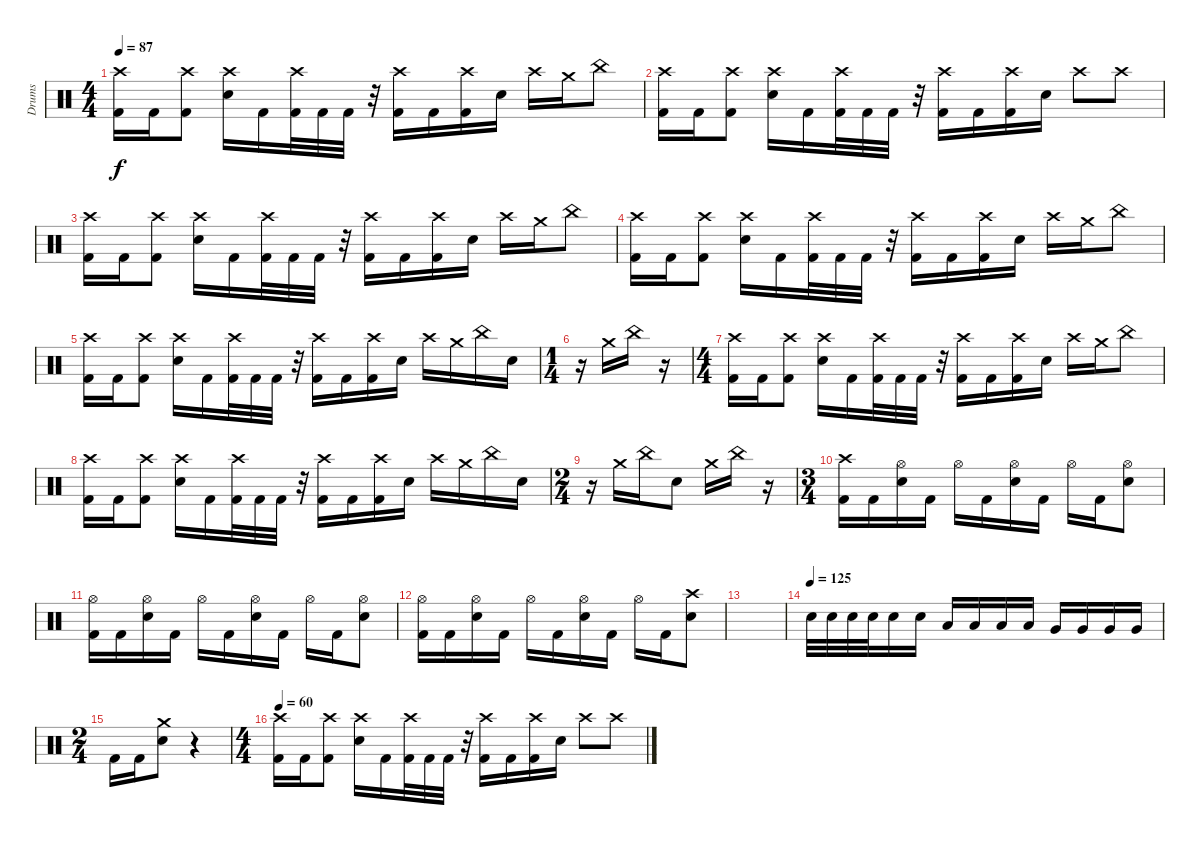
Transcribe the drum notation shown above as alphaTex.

\track ("Drums" "Drums") {instrument percussion}
\staff {score}
\articulation defaults
\ts (4 4)
\tempo 87
\clef neutral
\ks c
("Crash high (hit)" "Kick (hit) 2").16{dy f volume 16} "Kick (hit) 2".16 ("Crash high (hit)" "Kick (hit) 2").8 ("Crash high (hit)" "Snare (hit) 2").16 "Kick (hit) 2".16 ("Crash high (hit)" "Kick (hit) 2").32 "Kick (hit) 2".32 "Kick (hit) 2".32 r.32 ("Crash high (hit)" "Kick (hit) 2").16 "Kick (hit) 2".16 ("Crash high (hit)" "Kick (hit) 2").16 "Snare (hit) 2".16 "Crash high (hit)".16 "Crash medium (hit)".16 "China (hit)".8 |
("Crash high (hit)" "Kick (hit) 2").16{volume 16} "Kick (hit) 2".16 ("Crash high (hit)" "Kick (hit) 2").8 ("Crash high (hit)" "Snare (hit) 2").16 "Kick (hit) 2".16 ("Crash high (hit)" "Kick (hit) 2").32 "Kick (hit) 2".32 "Kick (hit) 2".32 r.32 ("Crash high (hit)" "Kick (hit) 2").16 "Kick (hit) 2".16 ("Crash high (hit)" "Kick (hit) 2").16 "Snare (hit) 2".16 "Crash high (hit)".8 "Crash high (hit)".8 |
("Crash high (hit)" "Kick (hit) 2").16{volume 16} "Kick (hit) 2".16 ("Crash high (hit)" "Kick (hit) 2").8 ("Crash high (hit)" "Snare (hit) 2").16 "Kick (hit) 2".16 ("Crash high (hit)" "Kick (hit) 2").32 "Kick (hit) 2".32 "Kick (hit) 2".32 r.32 ("Crash high (hit)" "Kick (hit) 2").16 "Kick (hit) 2".16 ("Crash high (hit)" "Kick (hit) 2").16 "Snare (hit) 2".16 "Crash high (hit)".16 "Crash medium (hit)".16 "China (hit)".8 |
("Crash high (hit)" "Kick (hit) 2").16{volume 16} "Kick (hit) 2".16 ("Crash high (hit)" "Kick (hit) 2").8 ("Crash high (hit)" "Snare (hit) 2").16 "Kick (hit) 2".16 ("Crash high (hit)" "Kick (hit) 2").32 "Kick (hit) 2".32 "Kick (hit) 2".32 r.32 ("Crash high (hit)" "Kick (hit) 2").16 "Kick (hit) 2".16 ("Crash high (hit)" "Kick (hit) 2").16 "Snare (hit) 2".16 "Crash high (hit)".16 "Crash medium (hit)".16 "China (hit)".8 |
("Crash high (hit)" "Kick (hit) 2").16{volume 16} "Kick (hit) 2".16 ("Crash high (hit)" "Kick (hit) 2").8 ("Crash high (hit)" "Snare (hit) 2").16 "Kick (hit) 2".16 ("Crash high (hit)" "Kick (hit) 2").32 "Kick (hit) 2".32 "Kick (hit) 2".32 r.32 ("Crash high (hit)" "Kick (hit) 2").16 "Kick (hit) 2".16 ("Crash high (hit)" "Kick (hit) 2").16 "Snare (hit) 2".16 "Crash high (hit)".16 "Crash medium (hit)".16 "China (hit)".16 "Snare (hit) 2".16 |
\ts (1 4)
r.16 "Crash medium (hit)".16 "China (hit)".16 r.16 |
\ts (4 4)
("Crash high (hit)" "Kick (hit) 2").16{volume 16} "Kick (hit) 2".16 ("Crash high (hit)" "Kick (hit) 2").8 ("Crash high (hit)" "Snare (hit) 2").16 "Kick (hit) 2".16 ("Crash high (hit)" "Kick (hit) 2").32 "Kick (hit) 2".32 "Kick (hit) 2".32 r.32 ("Crash high (hit)" "Kick (hit) 2").16 "Kick (hit) 2".16 ("Crash high (hit)" "Kick (hit) 2").16 "Snare (hit) 2".16 "Crash high (hit)".16 "Crash medium (hit)".16 "China (hit)".8 |
("Crash high (hit)" "Kick (hit) 2").16{volume 16} "Kick (hit) 2".16 ("Crash high (hit)" "Kick (hit) 2").8 ("Crash high (hit)" "Snare (hit) 2").16 "Kick (hit) 2".16 ("Crash high (hit)" "Kick (hit) 2").32 "Kick (hit) 2".32 "Kick (hit) 2".32 r.32 ("Crash high (hit)" "Kick (hit) 2").16 "Kick (hit) 2".16 ("Crash high (hit)" "Kick (hit) 2").16 "Snare (hit) 2".16 "Crash high (hit)".16 "Crash medium (hit)".16 "China (hit)".16 "Snare (hit) 2".16 |
\ts (2 4)
r.16 "Crash medium (hit)".16 "China (hit)".16 "Snare (hit) 2".8 "Crash medium (hit)".16 "China (hit)".16 r.16 |
\ts (3 4)
("Crash high (hit)" "Kick (hit) 2").16 "Kick (hit) 2".16 ("Hi-Hat (open)" "Snare (hit) 2").16 "Kick (hit) 2".16 "Hi-Hat (open)".16 "Kick (hit) 2".16 ("Hi-Hat (open)" "Snare (hit) 2").16 "Kick (hit) 2".16 "Hi-Hat (open)".16 "Kick (hit) 2".16 ("Hi-Hat (open)" "Snare (hit) 2").8 |
("Hi-Hat (open)" "Kick (hit) 2").16 "Kick (hit) 2".16 ("Hi-Hat (open)" "Snare (hit) 2").16 "Kick (hit) 2".16 "Hi-Hat (open)".16 "Kick (hit) 2".16 ("Hi-Hat (open)" "Snare (hit) 2").16 "Kick (hit) 2".16 "Hi-Hat (open)".16 "Kick (hit) 2".16 ("Hi-Hat (open)" "Snare (hit) 2").8 |
("Hi-Hat (open)" "Kick (hit) 2").16 "Kick (hit) 2".16 ("Hi-Hat (open)" "Snare (hit) 2").16 "Kick (hit) 2".16 "Hi-Hat (open)".16 "Kick (hit) 2".16 ("Hi-Hat (open)" "Snare (hit) 2").16 "Kick (hit) 2".16 "Hi-Hat (open)".16 "Kick (hit) 2".16 ("Crash high (hit)" "Snare (hit) 2").8 |
|
\tempo (125)
"Snare (hit) 2".32 "Snare (hit) 2".32 "Snare (hit) 2".32 "Snare (hit) 2".32 "Snare (hit) 2".16 "Snare (hit) 2".16 "Low Tom (hit)".16 "Low Tom (hit)".16 "Low Tom (hit)".16 "Low Tom (hit)".16 "Very Low Tom (hit)".16 "Very Low Tom (hit)".16 "Very Low Tom (hit)".16 "Very Low Tom (hit)".16 |
\ts (2 4)
"Kick (hit) 2".16 "Kick (hit) 2".16 ("Crash medium (hit)" "Snare (hit) 2").8 r.4 |
\ts (4 4)
\tempo 60
("Crash high (hit)" "Kick (hit) 2").16{volume 16} "Kick (hit) 2".16 ("Crash high (hit)" "Kick (hit) 2").8 ("Crash high (hit)" "Snare (hit) 2").16 "Kick (hit) 2".16 ("Crash high (hit)" "Kick (hit) 2").32 "Kick (hit) 2".32 "Kick (hit) 2".32 r.32 ("Crash high (hit)" "Kick (hit) 2").16 "Kick (hit) 2".16 ("Crash high (hit)" "Kick (hit) 2").16 "Snare (hit) 2".16 "Crash high (hit)".8 "Crash high (hit)".8
